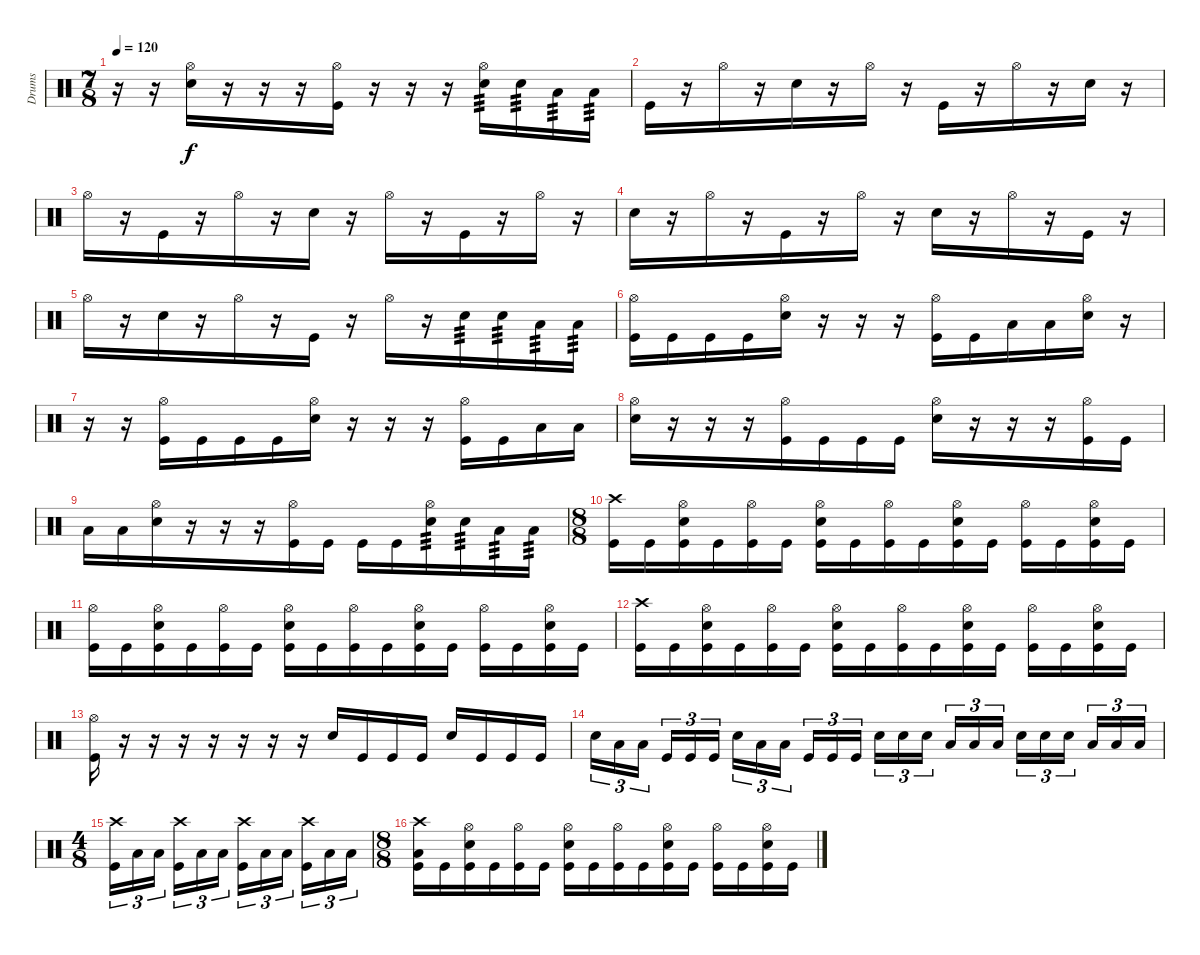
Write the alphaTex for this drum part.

\track ("Drums" "Drums") {instrument percussion}
\staff {score}
\articulation defaults
\ts (7 8)
\tempo 120
\clef neutral
\ks c
r.16{dy f} r.16 ("Hi-Hat (open)" "Electric Snare (hit)").16 r.16 r.16 r.16 ("Hi-Hat (open)" "Kick (hit)").16 r.16 r.16 r.16 ("Hi-Hat (open)" "Electric Snare (hit)").16{tp 3} "Electric Snare (hit)".16{tp 3} "Low Tom (hit)".16{tp 3} "Low Tom (hit)".16{tp 3} |
"Kick (hit)".16 r.16 "Hi-Hat (open)".16 r.16 "Electric Snare (hit)".16 r.16 "Hi-Hat (open)".16 r.16 "Kick (hit)".16 r.16 "Hi-Hat (open)".16 r.16 "Electric Snare (hit)".16 r.16 |
"Hi-Hat (open)".16 r.16 "Kick (hit)".16 r.16 "Hi-Hat (open)".16 r.16 "Electric Snare (hit)".16 r.16 "Hi-Hat (open)".16 r.16 "Kick (hit)".16 r.16 "Hi-Hat (open)".16 r.16 |
"Electric Snare (hit)".16 r.16 "Hi-Hat (open)".16 r.16 "Kick (hit)".16 r.16 "Hi-Hat (open)".16 r.16 "Electric Snare (hit)".16 r.16 "Hi-Hat (open)".16 r.16 "Kick (hit)".16 r.16 |
"Hi-Hat (open)".16 r.16 "Electric Snare (hit)".16 r.16 "Hi-Hat (open)".16 r.16 "Kick (hit)".16 r.16 "Hi-Hat (open)".16 r.16 "Electric Snare (hit)".16{tp 3} "Electric Snare (hit)".16{tp 3} "Low Tom (hit)".16{tp 3} "Low Tom (hit)".16{tp 3} |
("Hi-Hat (open)" "Kick (hit)").16 "Kick (hit)".16 "Kick (hit)".16 "Kick (hit)".16 ("Hi-Hat (open)" "Electric Snare (hit)").16 r.16 r.16 r.16 ("Hi-Hat (open)" "Kick (hit)").16 "Kick (hit)".16 "Low Floor Tom (hit)".16 "Low Floor Tom (hit)".16 ("Hi-Hat (open)" "Electric Snare (hit)").16 r.16 |
r.16 r.16 ("Hi-Hat (open)" "Kick (hit)").16 "Kick (hit)".16 "Kick (hit)".16 "Kick (hit)".16 ("Hi-Hat (open)" "Electric Snare (hit)").16 r.16 r.16 r.16 ("Hi-Hat (open)" "Kick (hit)").16 "Kick (hit)".16 "Low Floor Tom (hit)".16 "Low Floor Tom (hit)".16 |
("Hi-Hat (open)" "Electric Snare (hit)").16 r.16 r.16 r.16 ("Hi-Hat (open)" "Kick (hit)").16 "Kick (hit)".16 "Kick (hit)".16 "Kick (hit)".16 ("Hi-Hat (open)" "Electric Snare (hit)").16 r.16 r.16 r.16 ("Hi-Hat (open)" "Kick (hit)").16 "Kick (hit)".16 |
"Low Floor Tom (hit)".16 "Low Floor Tom (hit)".16 ("Hi-Hat (open)" "Electric Snare (hit)").16 r.16 r.16 r.16 ("Hi-Hat (open)" "Kick (hit)").16 "Kick (hit)".16 "Kick (hit)".16 "Kick (hit)".16 ("Hi-Hat (open)" "Electric Snare (hit)").16{tp 3} "Electric Snare (hit)".16{tp 3} "Low Tom (hit)".16{tp 3} "Low Tom (hit)".16{tp 3} |
\ts (8 8)
("Crash high (hit)" "Kick (hit)").16 "Kick (hit)".16 ("Hi-Hat (open)" "Electric Snare (hit)" "Kick (hit)").16 "Kick (hit)".16 ("Hi-Hat (open)" "Kick (hit)").16 "Kick (hit)".16 ("Hi-Hat (open)" "Electric Snare (hit)" "Kick (hit)").16 "Kick (hit)".16 ("Hi-Hat (open)" "Kick (hit)").16 "Kick (hit)".16 ("Hi-Hat (open)" "Electric Snare (hit)" "Kick (hit)").16 "Kick (hit)".16 ("Hi-Hat (open)" "Kick (hit)").16 "Kick (hit)".16 ("Hi-Hat (open)" "Electric Snare (hit)" "Kick (hit)").16 "Kick (hit)".16 |
("Hi-Hat (open)" "Kick (hit)").16 "Kick (hit)".16 ("Hi-Hat (open)" "Electric Snare (hit)" "Kick (hit)").16 "Kick (hit)".16 ("Hi-Hat (open)" "Kick (hit)").16 "Kick (hit)".16 ("Hi-Hat (open)" "Electric Snare (hit)" "Kick (hit)").16 "Kick (hit)".16 ("Hi-Hat (open)" "Kick (hit)").16 "Kick (hit)".16 ("Hi-Hat (open)" "Electric Snare (hit)" "Kick (hit)").16 "Kick (hit)".16 ("Hi-Hat (open)" "Kick (hit)").16 "Kick (hit)".16 ("Hi-Hat (open)" "Electric Snare (hit)" "Kick (hit)").16 "Kick (hit)".16 |
("Crash high (hit)" "Kick (hit)").16 "Kick (hit)".16 ("Hi-Hat (open)" "Electric Snare (hit)" "Kick (hit)").16 "Kick (hit)".16 ("Hi-Hat (open)" "Kick (hit)").16 "Kick (hit)".16 ("Hi-Hat (open)" "Electric Snare (hit)" "Kick (hit)").16 "Kick (hit)".16 ("Hi-Hat (open)" "Kick (hit)").16 "Kick (hit)".16 ("Hi-Hat (open)" "Electric Snare (hit)" "Kick (hit)").16 "Kick (hit)".16 ("Hi-Hat (open)" "Kick (hit)").16 "Kick (hit)".16 ("Hi-Hat (open)" "Electric Snare (hit)" "Kick (hit)").16 "Kick (hit)".16 |
("Hi-Hat (open)" "Kick (hit)").16 r.16 r.16 r.16 r.16 r.16 r.16 r.16 "Electric Snare (hit)".16 "Kick (hit)".16 "Kick (hit)".16 "Kick (hit)".16 "Electric Snare (hit)".16 "Kick (hit)".16 "Kick (hit)".16 "Kick (hit)".16 |
"Electric Snare (hit)".16{tu (3 2)} "Low Floor Tom (hit)".16{tu (3 2)} "Low Floor Tom (hit)".16{tu (3 2)} "Kick (hit)".16{tu (3 2)} "Kick (hit)".16{tu (3 2)} "Kick (hit)".16{tu (3 2)} "Electric Snare (hit)".16{tu (3 2)} "Low Tom (hit)".16{tu (3 2)} "Low Tom (hit)".16{tu (3 2)} "Kick (hit)".16{tu (3 2)} "Kick (hit)".16{tu (3 2)} "Kick (hit)".16{tu (3 2)} "Electric Snare (hit)".16{tu (3 2)} "Electric Snare (hit)".16{tu (3 2)} "Electric Snare (hit)".16{tu (3 2)} "Low Tom (hit)".16{tu (3 2)} "Low Tom (hit)".16{tu (3 2)} "Low Tom (hit)".16{tu (3 2)} "Electric Snare (hit)".16{tu (3 2)} "Electric Snare (hit)".16{tu (3 2)} "Electric Snare (hit)".16{tu (3 2)} "Low Tom (hit)".16{tu (3 2)} "Low Tom (hit)".16{tu (3 2)} "Low Tom (hit)".16{tu (3 2)} |
\ts (4 8)
("Crash high (hit)" "Kick (hit)").16{tu (3 2)} "Low Floor Tom (hit)".16{tu (3 2)} "Low Floor Tom (hit)".16{tu (3 2)} ("Crash high (hit)" "Kick (hit)").16{tu (3 2)} "Low Tom (hit)".16{tu (3 2)} "Low Tom (hit)".16{tu (3 2)} ("Crash high (hit)" "Kick (hit)").16{tu (3 2)} "Low Floor Tom (hit)".16{tu (3 2)} "Low Floor Tom (hit)".16{tu (3 2)} ("Crash high (hit)" "Kick (hit)").16{tu (3 2)} "Low Tom (hit)".16{tu (3 2)} "Low Tom (hit)".16{tu (3 2)} |
\ts (8 8)
("Crash high (hit)" "Low Tom (hit)" "Kick (hit)").16 "Kick (hit)".16 ("Hi-Hat (open)" "Electric Snare (hit)" "Kick (hit)").16 "Kick (hit)".16 ("Hi-Hat (open)" "Kick (hit)").16 "Kick (hit)".16 ("Hi-Hat (open)" "Electric Snare (hit)" "Kick (hit)").16 "Kick (hit)".16 ("Hi-Hat (open)" "Kick (hit)").16 "Kick (hit)".16 ("Hi-Hat (open)" "Electric Snare (hit)" "Kick (hit)").16 "Kick (hit)".16 ("Hi-Hat (open)" "Kick (hit)").16 "Kick (hit)".16 ("Hi-Hat (open)" "Electric Snare (hit)" "Kick (hit)").16 "Kick (hit)".16
